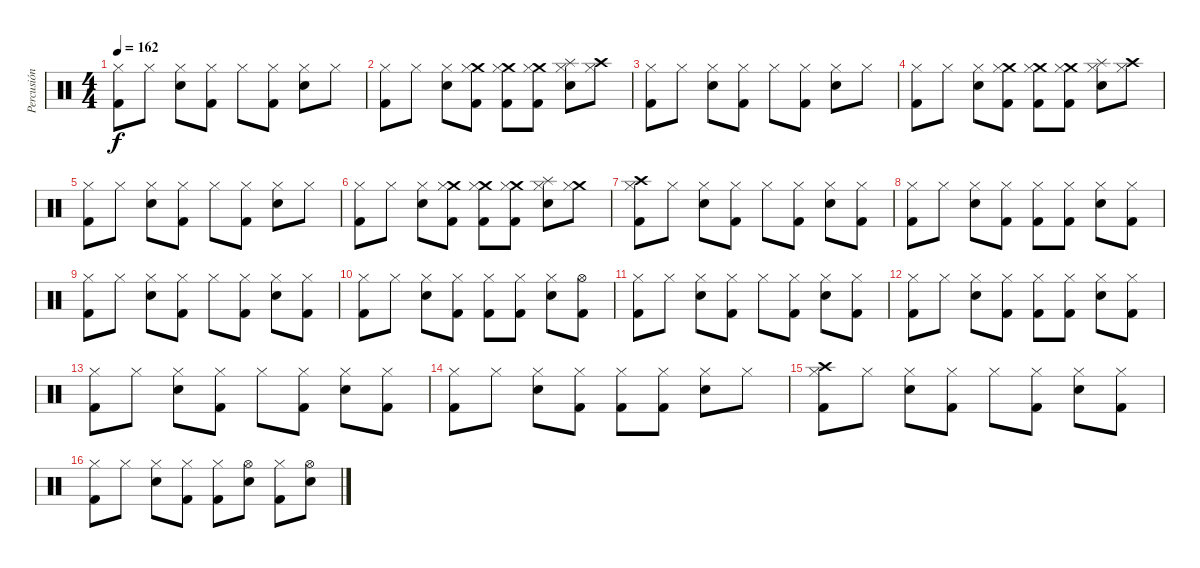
\track ("Percusión" "Percusión") {instrument percussion}
\staff {score}
\articulation defaults
\ts (4 4)
\tempo 162
\clef neutral
\ks c
("Hi-Hat (closed)" "Kick (hit) 2").8{dy f} "Hi-Hat (closed)".8 ("Hi-Hat (closed)" "Snare (hit) 2").8 ("Hi-Hat (closed)" "Kick (hit) 2").8 "Hi-Hat (closed)".8 ("Hi-Hat (closed)" "Kick (hit) 2").8 ("Hi-Hat (closed)" "Snare (hit) 2").8 "Hi-Hat (closed)".8 |
("Hi-Hat (closed)" "Kick (hit) 2").8 "Hi-Hat (closed)".8 ("Hi-Hat (closed)" "Snare (hit) 2").8 ("Crash medium (hit)" "Hi-Hat (closed)" "Kick (hit) 2").8 ("Crash medium (hit)" "Hi-Hat (closed)" "Kick (hit) 2").8 ("Crash medium (hit)" "Hi-Hat (closed)" "Kick (hit) 2").8 ("Splash (hit)" "Hi-Hat (closed)" "Snare (hit) 2").8 ("Crash high (hit)" "Hi-Hat (closed)").8 |
("Hi-Hat (closed)" "Kick (hit) 2").8 "Hi-Hat (closed)".8 ("Hi-Hat (closed)" "Snare (hit) 2").8 ("Hi-Hat (closed)" "Kick (hit) 2").8 "Hi-Hat (closed)".8 ("Hi-Hat (closed)" "Kick (hit) 2").8 ("Hi-Hat (closed)" "Snare (hit) 2").8 "Hi-Hat (closed)".8 |
("Hi-Hat (closed)" "Kick (hit) 2").8 "Hi-Hat (closed)".8 ("Hi-Hat (closed)" "Snare (hit) 2").8 ("Crash medium (hit)" "Hi-Hat (closed)" "Kick (hit) 2").8 ("Crash medium (hit)" "Hi-Hat (closed)" "Kick (hit) 2").8 ("Crash medium (hit)" "Hi-Hat (closed)" "Kick (hit) 2").8 ("Splash (hit)" "Hi-Hat (closed)" "Snare (hit) 2").8 ("Crash high (hit)" "Hi-Hat (closed)").8 |
("Hi-Hat (closed)" "Kick (hit) 2").8 "Hi-Hat (closed)".8 ("Hi-Hat (closed)" "Snare (hit) 2").8 ("Hi-Hat (closed)" "Kick (hit) 2").8 "Hi-Hat (closed)".8 ("Hi-Hat (closed)" "Kick (hit) 2").8 ("Hi-Hat (closed)" "Snare (hit) 2").8 "Hi-Hat (closed)".8 |
("Hi-Hat (closed)" "Kick (hit) 2").8 "Hi-Hat (closed)".8 ("Hi-Hat (closed)" "Snare (hit) 2").8 ("Crash medium (hit)" "Hi-Hat (closed)" "Kick (hit) 2").8 ("Crash medium (hit)" "Hi-Hat (closed)" "Kick (hit) 2").8 ("Crash medium (hit)" "Hi-Hat (closed)" "Kick (hit) 2").8 ("Splash (hit)" "Hi-Hat (closed)" "Snare (hit) 2").8 ("Crash medium (hit)" "Hi-Hat (closed)").8 |
("Crash high (hit)" "Hi-Hat (closed)" "Kick (hit) 2").8 "Hi-Hat (closed)".8 ("Hi-Hat (closed)" "Snare (hit) 2").8 ("Hi-Hat (closed)" "Kick (hit) 2").8 "Hi-Hat (closed)".8 ("Hi-Hat (closed)" "Kick (hit) 2").8 ("Hi-Hat (closed)" "Snare (hit) 2").8 ("Hi-Hat (closed)" "Kick (hit) 2").8 |
("Hi-Hat (closed)" "Kick (hit) 2").8 "Hi-Hat (closed)".8 ("Hi-Hat (closed)" "Snare (hit) 2").8 ("Hi-Hat (closed)" "Kick (hit) 2").8 ("Hi-Hat (closed)" "Kick (hit) 2").8 ("Hi-Hat (closed)" "Kick (hit) 2").8 ("Hi-Hat (closed)" "Snare (hit) 2").8 ("Hi-Hat (closed)" "Kick (hit) 2").8 |
("Hi-Hat (closed)" "Kick (hit) 2").8 "Hi-Hat (closed)".8 ("Hi-Hat (closed)" "Snare (hit) 2").8 ("Hi-Hat (closed)" "Kick (hit) 2").8 "Hi-Hat (closed)".8 ("Hi-Hat (closed)" "Kick (hit) 2").8 ("Hi-Hat (closed)" "Snare (hit) 2").8 ("Hi-Hat (closed)" "Kick (hit) 2").8 |
("Hi-Hat (closed)" "Kick (hit) 2").8 "Hi-Hat (closed)".8 ("Hi-Hat (closed)" "Snare (hit) 2").8 ("Hi-Hat (closed)" "Kick (hit) 2").8 ("Hi-Hat (closed)" "Kick (hit) 2").8 ("Hi-Hat (closed)" "Kick (hit) 2").8 ("Hi-Hat (closed)" "Snare (hit) 2").8 ("Hi-Hat (open)" "Kick (hit) 2").8 |
("Hi-Hat (closed)" "Kick (hit) 2").8 "Hi-Hat (closed)".8 ("Hi-Hat (closed)" "Snare (hit) 2").8 ("Hi-Hat (closed)" "Kick (hit) 2").8 "Hi-Hat (closed)".8 ("Hi-Hat (closed)" "Kick (hit) 2").8 ("Hi-Hat (closed)" "Snare (hit) 2").8 ("Hi-Hat (closed)" "Kick (hit) 2").8 |
("Hi-Hat (closed)" "Kick (hit) 2").8 "Hi-Hat (closed)".8 ("Hi-Hat (closed)" "Snare (hit) 2").8 ("Hi-Hat (closed)" "Kick (hit) 2").8 ("Hi-Hat (closed)" "Kick (hit) 2").8 ("Hi-Hat (closed)" "Kick (hit) 2").8 ("Hi-Hat (closed)" "Snare (hit) 2").8 ("Hi-Hat (closed)" "Kick (hit) 2").8 |
("Hi-Hat (closed)" "Kick (hit) 2").8 "Hi-Hat (closed)".8 ("Hi-Hat (closed)" "Snare (hit) 2").8 ("Hi-Hat (closed)" "Kick (hit) 2").8 "Hi-Hat (closed)".8 ("Hi-Hat (closed)" "Kick (hit) 2").8 ("Hi-Hat (closed)" "Snare (hit) 2").8 ("Hi-Hat (closed)" "Kick (hit) 2").8 |
("Hi-Hat (closed)" "Kick (hit) 2").8 "Hi-Hat (closed)".8 ("Hi-Hat (closed)" "Snare (hit) 2").8 ("Hi-Hat (closed)" "Kick (hit) 2").8 ("Hi-Hat (closed)" "Kick (hit) 2").8 ("Hi-Hat (closed)" "Kick (hit) 2").8 ("Hi-Hat (closed)" "Snare (hit) 2").8 "Hi-Hat (closed)".8 |
("Crash high (hit)" "Hi-Hat (closed)" "Kick (hit) 2").8 "Hi-Hat (closed)".8 ("Hi-Hat (closed)" "Snare (hit) 2").8 ("Hi-Hat (closed)" "Kick (hit) 2").8 "Hi-Hat (closed)".8 ("Hi-Hat (closed)" "Kick (hit) 2").8 ("Hi-Hat (closed)" "Snare (hit) 2").8 ("Hi-Hat (closed)" "Kick (hit) 2").8 |
("Hi-Hat (closed)" "Kick (hit) 2").8 "Hi-Hat (closed)".8 ("Hi-Hat (closed)" "Snare (hit) 2").8 ("Hi-Hat (closed)" "Kick (hit) 2").8 ("Hi-Hat (closed)" "Kick (hit) 2").8 ("Hi-Hat (open)" "Snare (hit) 2").8 ("Hi-Hat (closed)" "Kick (hit) 2").8 ("Hi-Hat (open)" "Snare (hit) 2").8
